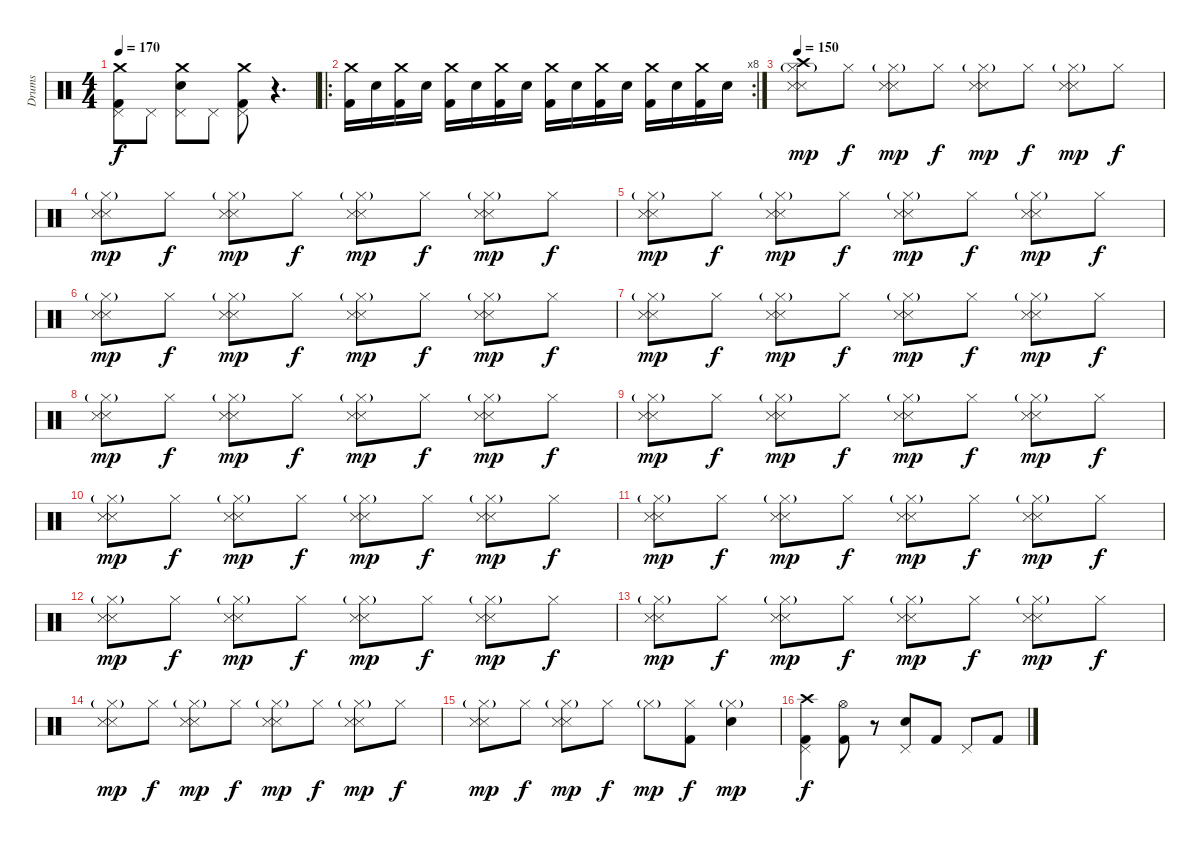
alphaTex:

\track ("Drums" "Drums") {instrument percussion}
\staff {score}
\articulation defaults
\ts (4 4)
\tempo 170
\clef neutral
\ks c
("Crash medium (hit)" "Pedal Hi-Hat (hit)" "Kick (hit) 2").8{dy f} "Pedal Hi-Hat (hit)".8 ("Crash medium (hit)" "Pedal Hi-Hat (hit)" "Snare (hit) 2").8 "Pedal Hi-Hat (hit)".8 ("Crash medium (hit)" "Pedal Hi-Hat (hit)" "Kick (hit) 2").8 r.4{d} |
\ro
\rc 8
("Crash medium (hit)" "Kick (hit) 2").16 "Electric Snare (hit)".16 ("Crash medium (hit)" "Kick (hit) 2").16 "Electric Snare (hit)".16 ("Crash medium (hit)" "Kick (hit) 2").16 "Electric Snare (hit)".16 ("Crash medium (hit)" "Kick (hit) 2").16 "Electric Snare (hit)".16 ("Crash medium (hit)" "Kick (hit) 2").16 "Electric Snare (hit)".16 ("Crash medium (hit)" "Kick (hit) 2").16 "Electric Snare (hit)".16 ("Crash medium (hit)" "Kick (hit) 2").16 "Electric Snare (hit)".16 ("Crash medium (hit)" "Kick (hit) 2").16 "Electric Snare (hit)".16 |
\tempo 150
("Crash high (hit)" "Hi-Hat (closed)"{g} "Snare (side stick) 3" "Snare (side stick) 3").8{dy mp} "Hi-Hat (closed)".8{dy f} ("Hi-Hat (closed)"{g} "Snare (side stick) 3" "Snare (side stick) 3").8{dy mp} "Hi-Hat (closed)".8{dy f} ("Hi-Hat (closed)"{g} "Snare (side stick) 3" "Snare (side stick) 3").8{dy mp} "Hi-Hat (closed)".8{dy f} ("Hi-Hat (closed)"{g} "Snare (side stick) 3" "Snare (side stick) 3").8{dy mp} "Hi-Hat (closed)".8{dy f} |
("Hi-Hat (closed)"{g} "Snare (side stick) 3" "Snare (side stick) 3").8{dy mp} "Hi-Hat (closed)".8{dy f} ("Hi-Hat (closed)"{g} "Snare (side stick) 3" "Snare (side stick) 3").8{dy mp} "Hi-Hat (closed)".8{dy f} ("Hi-Hat (closed)"{g} "Snare (side stick) 3" "Snare (side stick) 3").8{dy mp} "Hi-Hat (closed)".8{dy f} ("Hi-Hat (closed)"{g} "Snare (side stick) 3" "Snare (side stick) 3").8{dy mp} "Hi-Hat (closed)".8{dy f} |
("Hi-Hat (closed)"{g} "Snare (side stick) 3" "Snare (side stick) 3").8{dy mp} "Hi-Hat (closed)".8{dy f} ("Hi-Hat (closed)"{g} "Snare (side stick) 3" "Snare (side stick) 3").8{dy mp} "Hi-Hat (closed)".8{dy f} ("Hi-Hat (closed)"{g} "Snare (side stick) 3" "Snare (side stick) 3").8{dy mp} "Hi-Hat (closed)".8{dy f} ("Hi-Hat (closed)"{g} "Snare (side stick) 3" "Snare (side stick) 3").8{dy mp} "Hi-Hat (closed)".8{dy f} |
("Hi-Hat (closed)"{g} "Snare (side stick) 3" "Snare (side stick) 3").8{dy mp} "Hi-Hat (closed)".8{dy f} ("Hi-Hat (closed)"{g} "Snare (side stick) 3" "Snare (side stick) 3").8{dy mp} "Hi-Hat (closed)".8{dy f} ("Hi-Hat (closed)"{g} "Snare (side stick) 3" "Snare (side stick) 3").8{dy mp} "Hi-Hat (closed)".8{dy f} ("Hi-Hat (closed)"{g} "Snare (side stick) 3" "Snare (side stick) 3").8{dy mp} "Hi-Hat (closed)".8{dy f} |
("Hi-Hat (closed)"{g} "Snare (side stick) 3" "Snare (side stick) 3").8{dy mp} "Hi-Hat (closed)".8{dy f} ("Hi-Hat (closed)"{g} "Snare (side stick) 3" "Snare (side stick) 3").8{dy mp} "Hi-Hat (closed)".8{dy f} ("Hi-Hat (closed)"{g} "Snare (side stick) 3" "Snare (side stick) 3").8{dy mp} "Hi-Hat (closed)".8{dy f} ("Hi-Hat (closed)"{g} "Snare (side stick) 3" "Snare (side stick) 3").8{dy mp} "Hi-Hat (closed)".8{dy f} |
("Hi-Hat (closed)"{g} "Snare (side stick) 3" "Snare (side stick) 3").8{dy mp} "Hi-Hat (closed)".8{dy f} ("Hi-Hat (closed)"{g} "Snare (side stick) 3" "Snare (side stick) 3").8{dy mp} "Hi-Hat (closed)".8{dy f} ("Hi-Hat (closed)"{g} "Snare (side stick) 3" "Snare (side stick) 3").8{dy mp} "Hi-Hat (closed)".8{dy f} ("Hi-Hat (closed)"{g} "Snare (side stick) 3" "Snare (side stick) 3").8{dy mp} "Hi-Hat (closed)".8{dy f} |
("Hi-Hat (closed)"{g} "Snare (side stick) 3" "Snare (side stick) 3").8{dy mp} "Hi-Hat (closed)".8{dy f} ("Hi-Hat (closed)"{g} "Snare (side stick) 3" "Snare (side stick) 3").8{dy mp} "Hi-Hat (closed)".8{dy f} ("Hi-Hat (closed)"{g} "Snare (side stick) 3" "Snare (side stick) 3").8{dy mp} "Hi-Hat (closed)".8{dy f} ("Hi-Hat (closed)"{g} "Snare (side stick) 3" "Snare (side stick) 3").8{dy mp} "Hi-Hat (closed)".8{dy f} |
("Hi-Hat (closed)"{g} "Snare (side stick) 3" "Snare (side stick) 3").8{dy mp} "Hi-Hat (closed)".8{dy f} ("Hi-Hat (closed)"{g} "Snare (side stick) 3" "Snare (side stick) 3").8{dy mp} "Hi-Hat (closed)".8{dy f} ("Hi-Hat (closed)"{g} "Snare (side stick) 3" "Snare (side stick) 3").8{dy mp} "Hi-Hat (closed)".8{dy f} ("Hi-Hat (closed)"{g} "Snare (side stick) 3" "Snare (side stick) 3").8{dy mp} "Hi-Hat (closed)".8{dy f} |
("Hi-Hat (closed)"{g} "Snare (side stick) 3" "Snare (side stick) 3").8{dy mp} "Hi-Hat (closed)".8{dy f} ("Hi-Hat (closed)"{g} "Snare (side stick) 3" "Snare (side stick) 3").8{dy mp} "Hi-Hat (closed)".8{dy f} ("Hi-Hat (closed)"{g} "Snare (side stick) 3" "Snare (side stick) 3").8{dy mp} "Hi-Hat (closed)".8{dy f} ("Hi-Hat (closed)"{g} "Snare (side stick) 3" "Snare (side stick) 3").8{dy mp} "Hi-Hat (closed)".8{dy f} |
("Hi-Hat (closed)"{g} "Snare (side stick) 3" "Snare (side stick) 3").8{dy mp} "Hi-Hat (closed)".8{dy f} ("Hi-Hat (closed)"{g} "Snare (side stick) 3" "Snare (side stick) 3").8{dy mp} "Hi-Hat (closed)".8{dy f} ("Hi-Hat (closed)"{g} "Snare (side stick) 3" "Snare (side stick) 3").8{dy mp} "Hi-Hat (closed)".8{dy f} ("Hi-Hat (closed)"{g} "Snare (side stick) 3" "Snare (side stick) 3").8{dy mp} "Hi-Hat (closed)".8{dy f} |
("Hi-Hat (closed)"{g} "Snare (side stick) 3" "Snare (side stick) 3").8{dy mp} "Hi-Hat (closed)".8{dy f} ("Hi-Hat (closed)"{g} "Snare (side stick) 3" "Snare (side stick) 3").8{dy mp} "Hi-Hat (closed)".8{dy f} ("Hi-Hat (closed)"{g} "Snare (side stick) 3" "Snare (side stick) 3").8{dy mp} "Hi-Hat (closed)".8{dy f} ("Hi-Hat (closed)"{g} "Snare (side stick) 3" "Snare (side stick) 3").8{dy mp} "Hi-Hat (closed)".8{dy f} |
("Hi-Hat (closed)"{g} "Snare (side stick) 3" "Snare (side stick) 3").8{dy mp} "Hi-Hat (closed)".8{dy f} ("Hi-Hat (closed)"{g} "Snare (side stick) 3" "Snare (side stick) 3").8{dy mp} "Hi-Hat (closed)".8{dy f} ("Hi-Hat (closed)"{g} "Snare (side stick) 3" "Snare (side stick) 3").8{dy mp} "Hi-Hat (closed)".8{dy f} ("Hi-Hat (closed)"{g} "Snare (side stick) 3" "Snare (side stick) 3").8{dy mp} "Hi-Hat (closed)".8{dy f} |
("Hi-Hat (closed)"{g} "Snare (side stick) 3" "Snare (side stick) 3").8{dy mp} "Hi-Hat (closed)".8{dy f} ("Hi-Hat (closed)"{g} "Snare (side stick) 3" "Snare (side stick) 3").8{dy mp} "Hi-Hat (closed)".8{dy f} "Hi-Hat (closed)"{g}.8{dy mp} ("Hi-Hat (closed)" "Kick (hit) 2").8{dy f} ("Hi-Hat (closed)"{g} "Snare (hit) 2").4{dy mp} |
("Crash high (hit)" "Pedal Hi-Hat (hit)" "Kick (hit) 2").4{dy f} ("Hi-Hat (open)" "Kick (hit) 2").8 r.8 ("Pedal Hi-Hat (hit)" "Snare (hit) 2").8 "Kick (hit) 2".8 "Pedal Hi-Hat (hit)".8 "Kick (hit) 2".8
